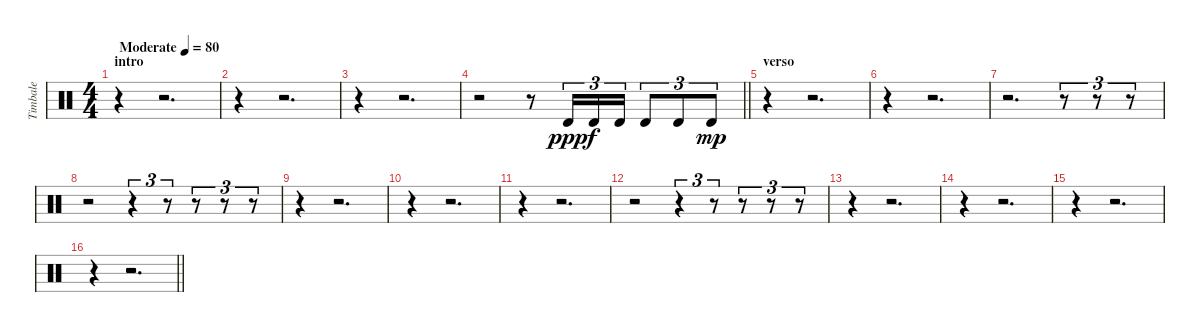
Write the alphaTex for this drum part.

\track ("Timbale" "Timbale") {instrument percussion}
\staff {score}
\articulation defaults
\ts (4 4)
\section ("" "intro")
\tempo (80 "Moderate")
\clef neutral
\ks c
r.4{dy ppp} r.2{d} |
r.4 r.2{d} |
r.4 r.2{d} |
\barLineRight lightlight
r.2 r.8 "Timbale high (hit)".16{tu (3 2)} "Timbale high (hit)".16{tu (3 2) dy f} "Timbale high (hit)".16{tu (3 2)} "Timbale high (hit)".8{tu (3 2)} "Timbale high (hit)".8{tu (3 2)} "Timbale high (hit)".8{tu (3 2) dy mp} |
\section ("" "verso")
r.4 r.2{d} |
r.4 r.2{d} |
r.2{d} r.8{tu (3 2)} r.8{tu (3 2)} r.8{tu (3 2)} |
r.2 r.4{tu (3 2)} r.8{tu (3 2)} r.8{tu (3 2)} r.8{tu (3 2)} r.8{tu (3 2)} |
r.4 r.2{d} |
r.4 r.2{d} |
r.4 r.2{d} |
r.2 r.4{tu (3 2)} r.8{tu (3 2)} r.8{tu (3 2)} r.8{tu (3 2)} r.8{tu (3 2)} |
r.4 r.2{d} |
r.4 r.2{d} |
r.4 r.2{d} |
\barLineRight lightlight
r.4 r.2{d}
